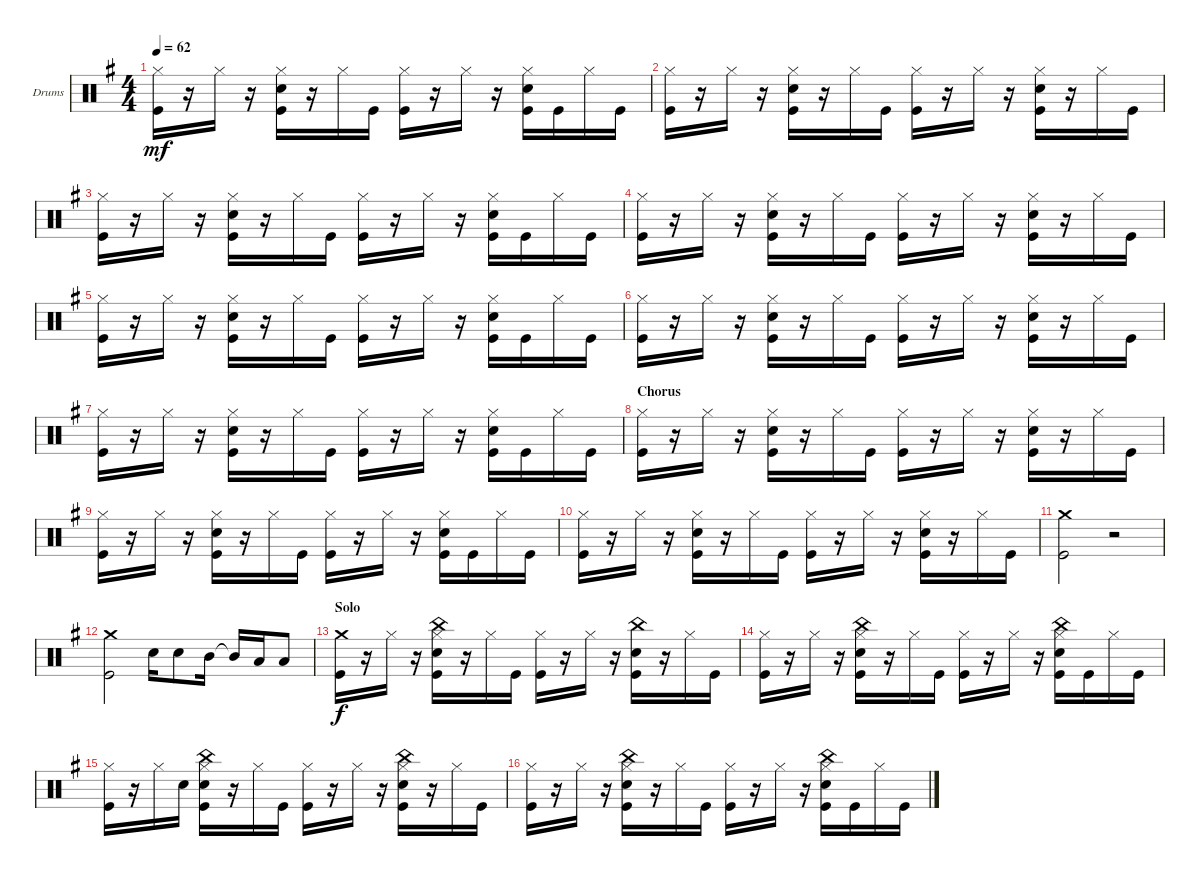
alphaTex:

\defaultSystemsLayout 4
\bracketExtendMode groupsimilarinstruments
\firstSystemTrackNameOrientation horizontal
\otherSystemsTrackNameOrientation horizontal
\track ("Drumkit" "Drums") {instrument percussion}
\staff {score}
\articulation defaults
\ts (4 4)
\tempo 62
\clef neutral
\ks g
("Hi-Hat (closed)" "Kick (hit)").16{dy mf} r.16 "Hi-Hat (closed)".16 r.16 ("Hi-Hat (closed)" "Kick (hit)" "Snare (hit) 2").16 r.16 "Hi-Hat (closed)".16 "Kick (hit)".16 ("Kick (hit)" "Hi-Hat (closed)").16 r.16 "Hi-Hat (closed)".16 r.16 ("Hi-Hat (closed)" "Kick (hit)" "Snare (hit) 2").16 "Kick (hit)".16 "Hi-Hat (closed)".16 "Kick (hit)".16 |
("Hi-Hat (closed)" "Kick (hit)").16 r.16 "Hi-Hat (closed)".16 r.16 ("Hi-Hat (closed)" "Kick (hit)" "Snare (hit) 2").16 r.16 "Hi-Hat (closed)".16 "Kick (hit)".16 ("Kick (hit)" "Hi-Hat (closed)").16 r.16 "Hi-Hat (closed)".16 r.16 ("Hi-Hat (closed)" "Kick (hit)" "Snare (hit) 2").16 r.16 "Hi-Hat (closed)".16 "Kick (hit)".16 |
("Hi-Hat (closed)" "Kick (hit)").16 r.16 "Hi-Hat (closed)".16 r.16 ("Hi-Hat (closed)" "Kick (hit)" "Snare (hit) 2").16 r.16 "Hi-Hat (closed)".16 "Kick (hit)".16 ("Kick (hit)" "Hi-Hat (closed)").16 r.16 "Hi-Hat (closed)".16 r.16 ("Hi-Hat (closed)" "Kick (hit)" "Snare (hit) 2").16 "Kick (hit)".16 "Hi-Hat (closed)".16 "Kick (hit)".16 |
("Hi-Hat (closed)" "Kick (hit)").16 r.16 "Hi-Hat (closed)".16 r.16 ("Hi-Hat (closed)" "Kick (hit)" "Snare (hit) 2").16 r.16 "Hi-Hat (closed)".16 "Kick (hit)".16 ("Kick (hit)" "Hi-Hat (closed)").16 r.16 "Hi-Hat (closed)".16 r.16 ("Hi-Hat (closed)" "Kick (hit)" "Snare (hit) 2").16 r.16 "Hi-Hat (closed)".16 "Kick (hit)".16 |
("Hi-Hat (closed)" "Kick (hit)").16 r.16 "Hi-Hat (closed)".16 r.16 ("Hi-Hat (closed)" "Kick (hit)" "Snare (hit) 2").16 r.16 "Hi-Hat (closed)".16 "Kick (hit)".16 ("Kick (hit)" "Hi-Hat (closed)").16 r.16 "Hi-Hat (closed)".16 r.16 ("Hi-Hat (closed)" "Kick (hit)" "Snare (hit) 2").16 "Kick (hit)".16 "Hi-Hat (closed)".16 "Kick (hit)".16 |
("Hi-Hat (closed)" "Kick (hit)").16 r.16 "Hi-Hat (closed)".16 r.16 ("Hi-Hat (closed)" "Kick (hit)" "Snare (hit) 2").16 r.16 "Hi-Hat (closed)".16 "Kick (hit)".16 ("Kick (hit)" "Hi-Hat (closed)").16 r.16 "Hi-Hat (closed)".16 r.16 ("Hi-Hat (closed)" "Kick (hit)" "Snare (hit) 2").16 r.16 "Hi-Hat (closed)".16 "Kick (hit)".16 |
("Hi-Hat (closed)" "Kick (hit)").16 r.16 "Hi-Hat (closed)".16 r.16 ("Hi-Hat (closed)" "Kick (hit)" "Snare (hit) 2").16 r.16 "Hi-Hat (closed)".16 "Kick (hit)".16 ("Kick (hit)" "Hi-Hat (closed)").16 r.16 "Hi-Hat (closed)".16 r.16 ("Hi-Hat (closed)" "Kick (hit)" "Snare (hit) 2").16 "Kick (hit)".16 "Hi-Hat (closed)".16 "Kick (hit)".16 |
\section ("" "Chorus")
("Hi-Hat (closed)" "Kick (hit)").16 r.16 "Hi-Hat (closed)".16 r.16 ("Hi-Hat (closed)" "Kick (hit)" "Snare (hit) 2").16 r.16 "Hi-Hat (closed)".16 "Kick (hit)".16 ("Kick (hit)" "Hi-Hat (closed)").16 r.16 "Hi-Hat (closed)".16 r.16 ("Hi-Hat (closed)" "Kick (hit)" "Snare (hit) 2").16 r.16 "Hi-Hat (closed)".16 "Kick (hit)".16 |
("Hi-Hat (closed)" "Kick (hit)").16 r.16 "Hi-Hat (closed)".16 r.16 ("Hi-Hat (closed)" "Kick (hit)" "Snare (hit) 2").16 r.16 "Hi-Hat (closed)".16 "Kick (hit)".16 ("Kick (hit)" "Hi-Hat (closed)").16 r.16 "Hi-Hat (closed)".16 r.16 ("Hi-Hat (closed)" "Kick (hit)" "Snare (hit) 2").16 "Kick (hit)".16 "Hi-Hat (closed)".16 "Kick (hit)".16 |
("Hi-Hat (closed)" "Kick (hit)").16 r.16 "Hi-Hat (closed)".16 r.16 ("Hi-Hat (closed)" "Kick (hit)" "Snare (hit) 2").16 r.16 "Hi-Hat (closed)".16 "Kick (hit)".16 ("Kick (hit)" "Hi-Hat (closed)").16 r.16 "Hi-Hat (closed)".16 r.16 ("Hi-Hat (closed)" "Kick (hit)" "Snare (hit) 2").16 r.16 "Hi-Hat (closed)".16 "Kick (hit)".16 |
("Crash medium (hit)" "Kick (hit)").2 r.2 |
("Crash medium (hit)" "Kick (hit)").2 "Snare (hit) 2".16 "Snare (hit) 2".8 "Mid Tom (hit)".16 "Mid Tom (hit)"{t}.16 "Low Tom (hit)".16 "Low Tom (hit)".8 |
\section ("" "Solo")
("Kick (hit)" "Crash medium (hit)").16{dy f} r.16 "Hi-Hat (closed)".16 r.16 ("Hi-Hat (closed)" "Kick (hit)" "Snare (hit) 2" "China (hit)").16 r.16 "Hi-Hat (closed)".16 "Kick (hit)".16 ("Kick (hit)" "Hi-Hat (closed)").16 r.16 "Hi-Hat (closed)".16 r.16 ("Kick (hit)" "Snare (hit) 2" "China (hit)").16 r.16 "Hi-Hat (closed)".16 "Kick (hit)".16 |
("Hi-Hat (closed)" "Kick (hit)").16 r.16 "Hi-Hat (closed)".16 r.16 ("Hi-Hat (closed)" "Kick (hit)" "Snare (hit) 2" "China (hit)").16 r.16 "Hi-Hat (closed)".16 "Kick (hit)".16 ("Kick (hit)" "Hi-Hat (closed)").16 r.16 "Hi-Hat (closed)".16 r.16 ("Hi-Hat (closed)" "Kick (hit)" "Snare (hit) 2" "China (hit)").16 "Kick (hit)".16 "Hi-Hat (closed)".16 "Kick (hit)".16 |
("Hi-Hat (closed)" "Kick (hit)").16 r.16 "Hi-Hat (closed)".16 "Snare (hit) 2".16 ("Hi-Hat (closed)" "Kick (hit)" "Snare (hit) 2" "China (hit)").16 r.16 "Hi-Hat (closed)".16 "Kick (hit)".16 ("Kick (hit)" "Hi-Hat (closed)").16 r.16 "Hi-Hat (closed)".16 r.16 ("Hi-Hat (closed)" "Kick (hit)" "Snare (hit) 2" "China (hit)").16 r.16 "Hi-Hat (closed)".16 "Kick (hit)".16 |
("Hi-Hat (closed)" "Kick (hit)").16 r.16 "Hi-Hat (closed)".16 r.16 ("Hi-Hat (closed)" "Kick (hit)" "Snare (hit) 2" "China (hit)").16 r.16 "Hi-Hat (closed)".16 "Kick (hit)".16 ("Kick (hit)" "Hi-Hat (closed)").16 r.16 "Hi-Hat (closed)".16 r.16 ("Hi-Hat (closed)" "Kick (hit)" "Snare (hit) 2" "China (hit)").16 "Kick (hit)".16 "Hi-Hat (closed)".16 "Kick (hit)".16
